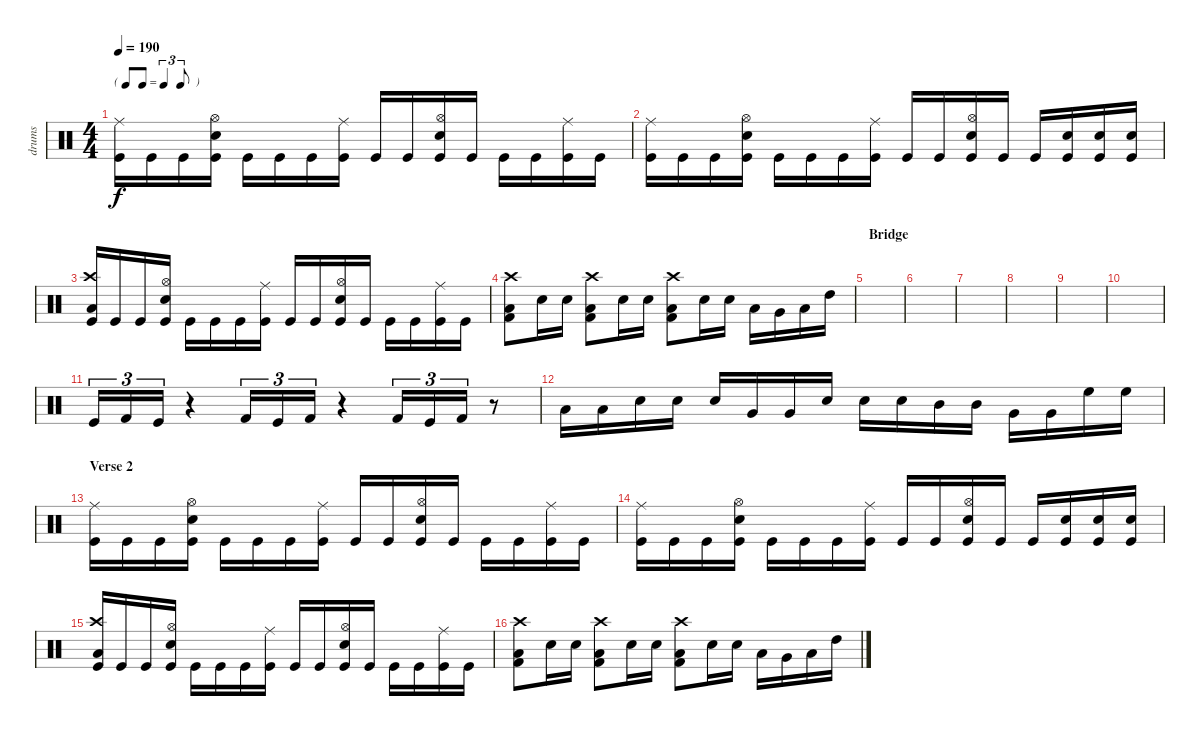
\track ("drums" "drums") {instrument percussion}
\staff {score}
\articulation defaults
\ts (4 4)
\tf triplet8th
\tempo 190
\clef neutral
\ks c
("Ride (middle)" "Kick (hit)").16{dy f} "Kick (hit)".16 "Kick (hit)".16 ("Hi-Hat (open)" "Electric Snare (hit)" "Kick (hit)").16 "Kick (hit)".16 "Kick (hit)".16 "Kick (hit)".16 ("Ride (middle)" "Kick (hit)").16 "Kick (hit)".16 "Kick (hit)".16 ("Hi-Hat (open)" "Electric Snare (hit)" "Kick (hit)").16 "Kick (hit)".16 "Kick (hit)".16 "Kick (hit)".16 ("Ride (middle)" "Kick (hit)").16 "Kick (hit)".16 |
("Ride (middle)" "Kick (hit)").16 "Kick (hit)".16 "Kick (hit)".16 ("Hi-Hat (open)" "Electric Snare (hit)" "Kick (hit)").16 "Kick (hit)".16 "Kick (hit)".16 "Kick (hit)".16 ("Ride (middle)" "Kick (hit)").16 "Kick (hit)".16 "Kick (hit)".16 ("Hi-Hat (open)" "Electric Snare (hit)" "Kick (hit)").16 "Kick (hit)".16 "Kick (hit)".16 ("Snare (hit) 2" "Kick (hit)").16 ("Snare (hit) 2" "Kick (hit)").16 ("Snare (hit) 2" "Kick (hit)").16 |
("Crash high (hit)" "Low Tom (hit)" "Kick (hit)").16 "Kick (hit)".16 "Kick (hit)".16 ("Hi-Hat (open)" "Electric Snare (hit)" "Kick (hit)").16 "Kick (hit)".16 "Kick (hit)".16 "Kick (hit)".16 ("Ride (middle)" "Kick (hit)").16 "Kick (hit)".16 "Kick (hit)".16 ("Hi-Hat (open)" "Electric Snare (hit)" "Kick (hit)").16 "Kick (hit)".16 "Kick (hit)".16 "Kick (hit)".16 ("Ride (middle)" "Kick (hit)").16 "Kick (hit)".16 |
("Crash high (hit)" "Low Floor Tom (hit)" "Kick (hit) 2").8 "Snare (hit) 2".16 "Snare (hit) 2".16 ("Crash high (hit)" "Low Floor Tom (hit)" "Kick (hit) 2").8 "Snare (hit) 2".16 "Snare (hit) 2".16 ("Crash high (hit)" "Low Floor Tom (hit)" "Kick (hit) 2").8 "Snare (hit) 2".16 "Snare (hit) 2".16 "Low Floor Tom (hit)".16 "Very Low Tom (hit)".16 "Low Tom (hit)".16 "High Tom (hit)".16 |
\section ("" "Bridge")
|
|
|
|
|
|
"Kick (hit)".16{tu (3 2)} "Kick (hit) 2".16{tu (3 2)} "Kick (hit)".16{tu (3 2)} r.4 "Kick (hit) 2".16{tu (3 2)} "Kick (hit)".16{tu (3 2)} "Kick (hit) 2".16{tu (3 2)} r.4 "Kick (hit) 2".16{tu (3 2)} "Kick (hit)".16{tu (3 2)} "Kick (hit) 2".16{tu (3 2)} r.8 |
"Low Floor Tom (hit)".16 "Low Floor Tom (hit)".16 "Electric Snare (hit)".16 "Electric Snare (hit)".16 "Electric Snare (hit)".16 "Very Low Tom (hit)".16 "Very Low Tom (hit)".16 "Electric Snare (hit)".16 "Electric Snare (hit)".16 "Electric Snare (hit)".16 "Mid Tom (hit)".16 "Mid Tom (hit)".16 "Very Low Tom (hit)".16 "Very Low Tom (hit)".16 "High Floor Tom (hit)".16 "High Floor Tom (hit)".16 |
\section ("" "Verse 2")
("Ride (middle)" "Kick (hit)").16 "Kick (hit)".16 "Kick (hit)".16 ("Hi-Hat (open)" "Electric Snare (hit)" "Kick (hit)").16 "Kick (hit)".16 "Kick (hit)".16 "Kick (hit)".16 ("Ride (middle)" "Kick (hit)").16 "Kick (hit)".16 "Kick (hit)".16 ("Hi-Hat (open)" "Electric Snare (hit)" "Kick (hit)").16 "Kick (hit)".16 "Kick (hit)".16 "Kick (hit)".16 ("Ride (middle)" "Kick (hit)").16 "Kick (hit)".16 |
("Ride (middle)" "Kick (hit)").16 "Kick (hit)".16 "Kick (hit)".16 ("Hi-Hat (open)" "Electric Snare (hit)" "Kick (hit)").16 "Kick (hit)".16 "Kick (hit)".16 "Kick (hit)".16 ("Ride (middle)" "Kick (hit)").16 "Kick (hit)".16 "Kick (hit)".16 ("Hi-Hat (open)" "Electric Snare (hit)" "Kick (hit)").16 "Kick (hit)".16 "Kick (hit)".16 ("Snare (hit) 2" "Kick (hit)").16 ("Snare (hit) 2" "Kick (hit)").16 ("Snare (hit) 2" "Kick (hit)").16 |
("Crash high (hit)" "Low Tom (hit)" "Kick (hit)").16 "Kick (hit)".16 "Kick (hit)".16 ("Hi-Hat (open)" "Electric Snare (hit)" "Kick (hit)").16 "Kick (hit)".16 "Kick (hit)".16 "Kick (hit)".16 ("Ride (middle)" "Kick (hit)").16 "Kick (hit)".16 "Kick (hit)".16 ("Hi-Hat (open)" "Electric Snare (hit)" "Kick (hit)").16 "Kick (hit)".16 "Kick (hit)".16 "Kick (hit)".16 ("Ride (middle)" "Kick (hit)").16 "Kick (hit)".16 |
("Crash high (hit)" "Low Floor Tom (hit)" "Kick (hit) 2").8 "Snare (hit) 2".16 "Snare (hit) 2".16 ("Crash high (hit)" "Low Floor Tom (hit)" "Kick (hit) 2").8 "Snare (hit) 2".16 "Snare (hit) 2".16 ("Crash high (hit)" "Low Floor Tom (hit)" "Kick (hit) 2").8 "Snare (hit) 2".16 "Snare (hit) 2".16 "Low Floor Tom (hit)".16 "Very Low Tom (hit)".16 "Low Tom (hit)".16 "High Tom (hit)".16
